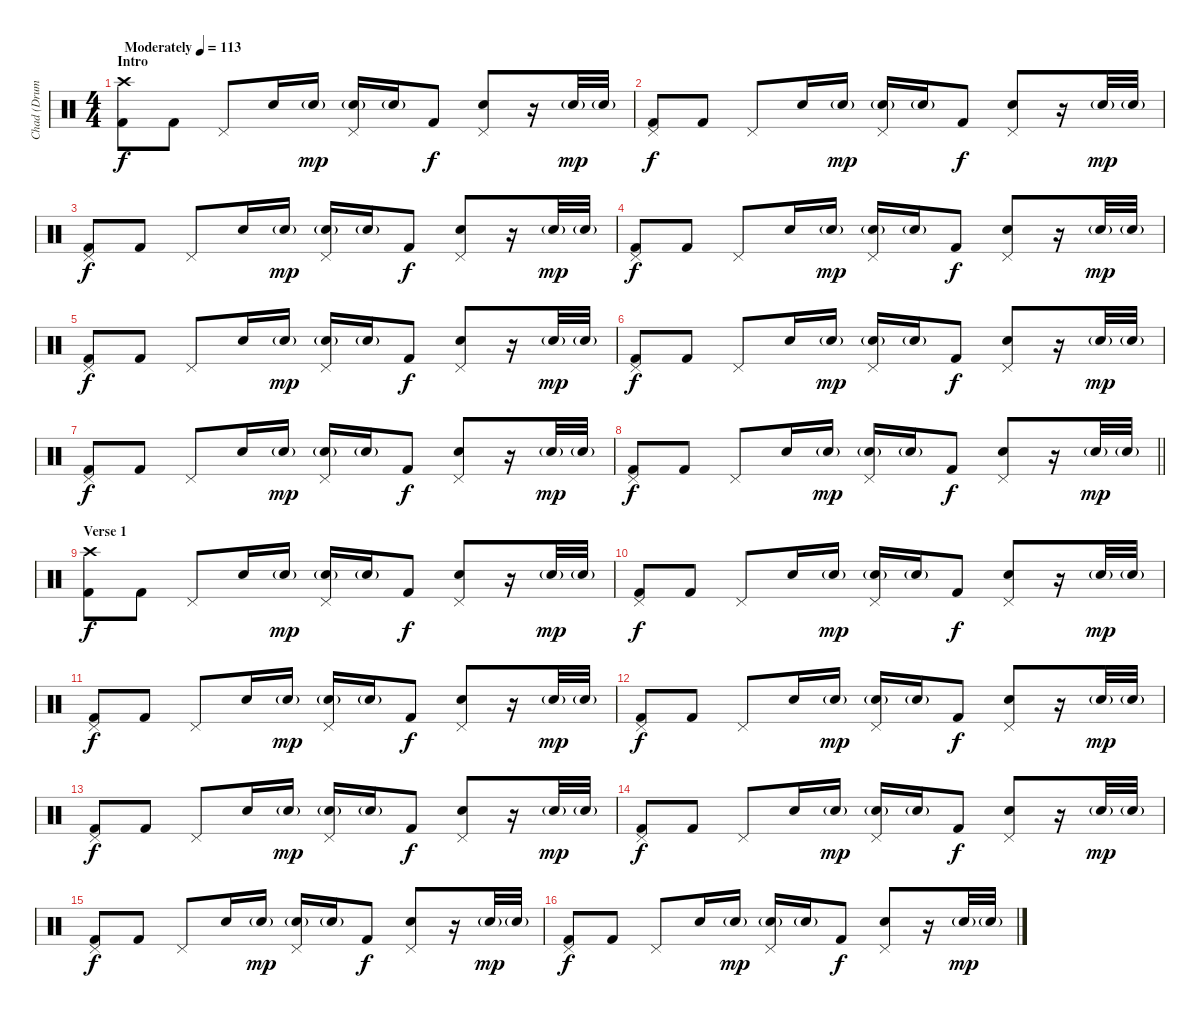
\track ("Chad (Drums)" "Chad (Drum") {instrument percussion}
\staff {score}
\articulation defaults
\ts (4 4)
\section ("" "Intro")
\tempo (113 "Moderately")
\clef neutral
\ks c
("Crash high (hit)" "Kick (hit) 2").8{dy f} "Kick (hit) 2".8 "Pedal Hi-Hat (hit)".8 "Snare (hit) 2".16 "Snare (hit) 2"{g}.16{dy mp} ("Pedal Hi-Hat (hit)" "Snare (hit) 2"{g}).16 "Snare (hit) 2"{g}.16 "Kick (hit) 2".8{dy f} ("Pedal Hi-Hat (hit)" "Snare (hit) 2").8 r.16 "Snare (hit) 2"{g}.32{dy mp} "Snare (hit) 2"{g}.32 |
("Pedal Hi-Hat (hit)" "Kick (hit) 2").8{dy f} "Kick (hit) 2".8 "Pedal Hi-Hat (hit)".8 "Snare (hit) 2".16 "Snare (hit) 2"{g}.16{dy mp} ("Pedal Hi-Hat (hit)" "Snare (hit) 2"{g}).16 "Snare (hit) 2"{g}.16 "Kick (hit) 2".8{dy f} ("Pedal Hi-Hat (hit)" "Snare (hit) 2").8 r.16 "Snare (hit) 2"{g}.32{dy mp} "Snare (hit) 2"{g}.32 |
("Pedal Hi-Hat (hit)" "Kick (hit) 2").8{dy f} "Kick (hit) 2".8 "Pedal Hi-Hat (hit)".8 "Snare (hit) 2".16 "Snare (hit) 2"{g}.16{dy mp} ("Pedal Hi-Hat (hit)" "Snare (hit) 2"{g}).16 "Snare (hit) 2"{g}.16 "Kick (hit) 2".8{dy f} ("Pedal Hi-Hat (hit)" "Snare (hit) 2").8 r.16 "Snare (hit) 2"{g}.32{dy mp} "Snare (hit) 2"{g}.32 |
("Pedal Hi-Hat (hit)" "Kick (hit) 2").8{dy f} "Kick (hit) 2".8 "Pedal Hi-Hat (hit)".8 "Snare (hit) 2".16 "Snare (hit) 2"{g}.16{dy mp} ("Pedal Hi-Hat (hit)" "Snare (hit) 2"{g}).16 "Snare (hit) 2"{g}.16 "Kick (hit) 2".8{dy f} ("Pedal Hi-Hat (hit)" "Snare (hit) 2").8 r.16 "Snare (hit) 2"{g}.32{dy mp} "Snare (hit) 2"{g}.32 |
("Pedal Hi-Hat (hit)" "Kick (hit) 2").8{dy f} "Kick (hit) 2".8 "Pedal Hi-Hat (hit)".8 "Snare (hit) 2".16 "Snare (hit) 2"{g}.16{dy mp} ("Pedal Hi-Hat (hit)" "Snare (hit) 2"{g}).16 "Snare (hit) 2"{g}.16 "Kick (hit) 2".8{dy f} ("Pedal Hi-Hat (hit)" "Snare (hit) 2").8 r.16 "Snare (hit) 2"{g}.32{dy mp} "Snare (hit) 2"{g}.32 |
("Pedal Hi-Hat (hit)" "Kick (hit) 2").8{dy f} "Kick (hit) 2".8 "Pedal Hi-Hat (hit)".8 "Snare (hit) 2".16 "Snare (hit) 2"{g}.16{dy mp} ("Pedal Hi-Hat (hit)" "Snare (hit) 2"{g}).16 "Snare (hit) 2"{g}.16 "Kick (hit) 2".8{dy f} ("Pedal Hi-Hat (hit)" "Snare (hit) 2").8 r.16 "Snare (hit) 2"{g}.32{dy mp} "Snare (hit) 2"{g}.32 |
("Pedal Hi-Hat (hit)" "Kick (hit) 2").8{dy f} "Kick (hit) 2".8 "Pedal Hi-Hat (hit)".8 "Snare (hit) 2".16 "Snare (hit) 2"{g}.16{dy mp} ("Pedal Hi-Hat (hit)" "Snare (hit) 2"{g}).16 "Snare (hit) 2"{g}.16 "Kick (hit) 2".8{dy f} ("Pedal Hi-Hat (hit)" "Snare (hit) 2").8 r.16 "Snare (hit) 2"{g}.32{dy mp} "Snare (hit) 2"{g}.32 |
\barLineRight lightlight
("Pedal Hi-Hat (hit)" "Kick (hit) 2").8{dy f} "Kick (hit) 2".8 "Pedal Hi-Hat (hit)".8 "Snare (hit) 2".16 "Snare (hit) 2"{g}.16{dy mp} ("Pedal Hi-Hat (hit)" "Snare (hit) 2"{g}).16 "Snare (hit) 2"{g}.16 "Kick (hit) 2".8{dy f} ("Pedal Hi-Hat (hit)" "Snare (hit) 2").8 r.16 "Snare (hit) 2"{g}.32{dy mp} "Snare (hit) 2"{g}.32 |
\section ("" "Verse 1")
("Crash high (hit)" "Kick (hit) 2").8{dy f} "Kick (hit) 2".8 "Pedal Hi-Hat (hit)".8 "Snare (hit) 2".16 "Snare (hit) 2"{g}.16{dy mp} ("Pedal Hi-Hat (hit)" "Snare (hit) 2"{g}).16 "Snare (hit) 2"{g}.16 "Kick (hit) 2".8{dy f} ("Pedal Hi-Hat (hit)" "Snare (hit) 2").8 r.16 "Snare (hit) 2"{g}.32{dy mp} "Snare (hit) 2"{g}.32 |
("Pedal Hi-Hat (hit)" "Kick (hit) 2").8{dy f} "Kick (hit) 2".8 "Pedal Hi-Hat (hit)".8 "Snare (hit) 2".16 "Snare (hit) 2"{g}.16{dy mp} ("Pedal Hi-Hat (hit)" "Snare (hit) 2"{g}).16 "Snare (hit) 2"{g}.16 "Kick (hit) 2".8{dy f} ("Pedal Hi-Hat (hit)" "Snare (hit) 2").8 r.16 "Snare (hit) 2"{g}.32{dy mp} "Snare (hit) 2"{g}.32 |
("Pedal Hi-Hat (hit)" "Kick (hit) 2").8{dy f} "Kick (hit) 2".8 "Pedal Hi-Hat (hit)".8 "Snare (hit) 2".16 "Snare (hit) 2"{g}.16{dy mp} ("Pedal Hi-Hat (hit)" "Snare (hit) 2"{g}).16 "Snare (hit) 2"{g}.16 "Kick (hit) 2".8{dy f} ("Pedal Hi-Hat (hit)" "Snare (hit) 2").8 r.16 "Snare (hit) 2"{g}.32{dy mp} "Snare (hit) 2"{g}.32 |
("Pedal Hi-Hat (hit)" "Kick (hit) 2").8{dy f} "Kick (hit) 2".8 "Pedal Hi-Hat (hit)".8 "Snare (hit) 2".16 "Snare (hit) 2"{g}.16{dy mp} ("Pedal Hi-Hat (hit)" "Snare (hit) 2"{g}).16 "Snare (hit) 2"{g}.16 "Kick (hit) 2".8{dy f} ("Pedal Hi-Hat (hit)" "Snare (hit) 2").8 r.16 "Snare (hit) 2"{g}.32{dy mp} "Snare (hit) 2"{g}.32 |
("Pedal Hi-Hat (hit)" "Kick (hit) 2").8{dy f} "Kick (hit) 2".8 "Pedal Hi-Hat (hit)".8 "Snare (hit) 2".16 "Snare (hit) 2"{g}.16{dy mp} ("Pedal Hi-Hat (hit)" "Snare (hit) 2"{g}).16 "Snare (hit) 2"{g}.16 "Kick (hit) 2".8{dy f} ("Pedal Hi-Hat (hit)" "Snare (hit) 2").8 r.16 "Snare (hit) 2"{g}.32{dy mp} "Snare (hit) 2"{g}.32 |
("Pedal Hi-Hat (hit)" "Kick (hit) 2").8{dy f} "Kick (hit) 2".8 "Pedal Hi-Hat (hit)".8 "Snare (hit) 2".16 "Snare (hit) 2"{g}.16{dy mp} ("Pedal Hi-Hat (hit)" "Snare (hit) 2"{g}).16 "Snare (hit) 2"{g}.16 "Kick (hit) 2".8{dy f} ("Pedal Hi-Hat (hit)" "Snare (hit) 2").8 r.16 "Snare (hit) 2"{g}.32{dy mp} "Snare (hit) 2"{g}.32 |
("Pedal Hi-Hat (hit)" "Kick (hit) 2").8{dy f} "Kick (hit) 2".8 "Pedal Hi-Hat (hit)".8 "Snare (hit) 2".16 "Snare (hit) 2"{g}.16{dy mp} ("Pedal Hi-Hat (hit)" "Snare (hit) 2"{g}).16 "Snare (hit) 2"{g}.16 "Kick (hit) 2".8{dy f} ("Pedal Hi-Hat (hit)" "Snare (hit) 2").8 r.16 "Snare (hit) 2"{g}.32{dy mp} "Snare (hit) 2"{g}.32 |
("Pedal Hi-Hat (hit)" "Kick (hit) 2").8{dy f} "Kick (hit) 2".8 "Pedal Hi-Hat (hit)".8 "Snare (hit) 2".16 "Snare (hit) 2"{g}.16{dy mp} ("Pedal Hi-Hat (hit)" "Snare (hit) 2"{g}).16 "Snare (hit) 2"{g}.16 "Kick (hit) 2".8{dy f} ("Pedal Hi-Hat (hit)" "Snare (hit) 2").8 r.16 "Snare (hit) 2"{g}.32{dy mp} "Snare (hit) 2"{g}.32
